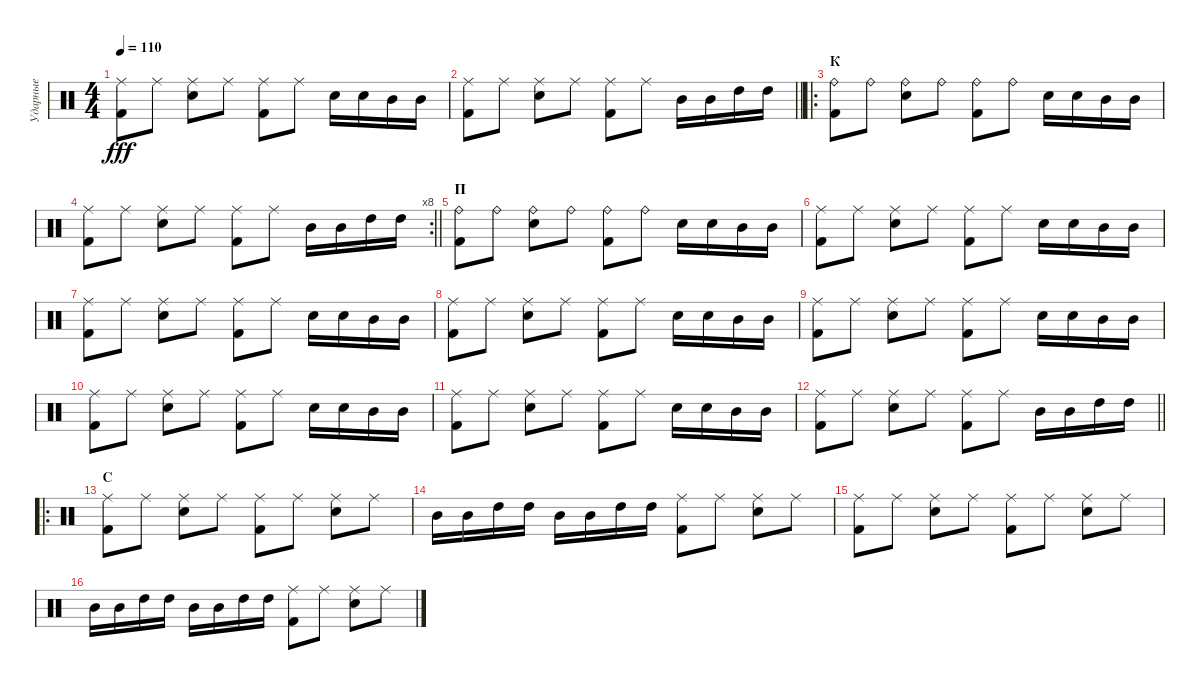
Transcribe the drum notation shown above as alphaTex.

\track ("Ударные" "Ударные") {instrument percussion}
\staff {score}
\articulation defaults
\ts (4 4)
\tempo 110
\clef neutral
\ks c
("Kick (hit) 2" "Ride (middle)").8{dy fff} "Ride (middle)".8 ("Electric Snare (hit)" "Ride (middle)").8 "Ride (middle)".8 ("Kick (hit) 2" "Ride (middle)").8 "Ride (middle)".8 "Electric Snare (hit)".16 "Electric Snare (hit)".16 "Mid Tom (hit)".16 "Mid Tom (hit)".16 |
\barLineRight lightlight
("Kick (hit) 2" "Ride (middle)").8 "Ride (middle)".8 ("Electric Snare (hit)" "Ride (middle)").8 "Ride (middle)".8 ("Kick (hit) 2" "Ride (middle)").8 "Ride (middle)".8 "Mid Tom (hit)".16 "Mid Tom (hit)".16 "High Tom (hit)".16 "High Tom (hit)".16 |
\ro
\section ("" "К")
("Kick (hit) 2" "Ride (bell)").8 "Ride (bell)".8 ("Electric Snare (hit)" "Ride (bell)").8 "Ride (bell)".8 ("Kick (hit) 2" "Ride (bell)").8 "Ride (bell)".8 "Electric Snare (hit)".16 "Electric Snare (hit)".16 "Mid Tom (hit)".16 "Mid Tom (hit)".16 |
\rc 8
\barLineRight lightlight
("Kick (hit) 2" "Ride (middle)").8 "Ride (middle)".8 ("Electric Snare (hit)" "Ride (middle)").8 "Ride (middle)".8 ("Kick (hit) 2" "Ride (middle)").8 "Ride (middle)".8 "Mid Tom (hit)".16 "Mid Tom (hit)".16 "High Tom (hit)".16 "High Tom (hit)".16 |
\section ("" "П")
("Kick (hit) 2" "Ride (bell)").8 "Ride (bell)".8 ("Electric Snare (hit)" "Ride (bell)").8 "Ride (bell)".8 ("Kick (hit) 2" "Ride (bell)").8 "Ride (bell)".8 "Electric Snare (hit)".16 "Electric Snare (hit)".16 "Mid Tom (hit)".16 "Mid Tom (hit)".16 |
("Kick (hit) 2" "Ride (middle)").8 "Ride (middle)".8 ("Electric Snare (hit)" "Ride (middle)").8 "Ride (middle)".8 ("Kick (hit) 2" "Ride (middle)").8 "Ride (middle)".8 "Electric Snare (hit)".16 "Electric Snare (hit)".16 "Mid Tom (hit)".16 "Mid Tom (hit)".16 |
("Kick (hit) 2" "Ride (middle)").8 "Ride (middle)".8 ("Electric Snare (hit)" "Ride (middle)").8 "Ride (middle)".8 ("Kick (hit) 2" "Ride (middle)").8 "Ride (middle)".8 "Electric Snare (hit)".16 "Electric Snare (hit)".16 "Mid Tom (hit)".16 "Mid Tom (hit)".16 |
("Kick (hit) 2" "Ride (middle)").8 "Ride (middle)".8 ("Electric Snare (hit)" "Ride (middle)").8 "Ride (middle)".8 ("Kick (hit) 2" "Ride (middle)").8 "Ride (middle)".8 "Electric Snare (hit)".16 "Electric Snare (hit)".16 "Mid Tom (hit)".16 "Mid Tom (hit)".16 |
("Kick (hit) 2" "Ride (middle)").8 "Ride (middle)".8 ("Electric Snare (hit)" "Ride (middle)").8 "Ride (middle)".8 ("Kick (hit) 2" "Ride (middle)").8 "Ride (middle)".8 "Electric Snare (hit)".16 "Electric Snare (hit)".16 "Mid Tom (hit)".16 "Mid Tom (hit)".16 |
("Kick (hit) 2" "Ride (middle)").8 "Ride (middle)".8 ("Electric Snare (hit)" "Ride (middle)").8 "Ride (middle)".8 ("Kick (hit) 2" "Ride (middle)").8 "Ride (middle)".8 "Electric Snare (hit)".16 "Electric Snare (hit)".16 "Mid Tom (hit)".16 "Mid Tom (hit)".16 |
("Kick (hit) 2" "Ride (middle)").8 "Ride (middle)".8 ("Electric Snare (hit)" "Ride (middle)").8 "Ride (middle)".8 ("Kick (hit) 2" "Ride (middle)").8 "Ride (middle)".8 "Electric Snare (hit)".16 "Electric Snare (hit)".16 "Mid Tom (hit)".16 "Mid Tom (hit)".16 |
\barLineRight lightlight
("Kick (hit) 2" "Ride (middle)").8 "Ride (middle)".8 ("Electric Snare (hit)" "Ride (middle)").8 "Ride (middle)".8 ("Kick (hit) 2" "Ride (middle)").8 "Ride (middle)".8 "Mid Tom (hit)".16 "Mid Tom (hit)".16 "High Tom (hit)".16 "High Tom (hit)".16 |
\ro
\section ("" "С")
("Kick (hit) 2" "Ride (middle)").8{volume 16} "Ride (middle)".8 ("Electric Snare (hit)" "Ride (middle)").8 "Ride (middle)".8 ("Kick (hit) 2" "Ride (middle)").8 "Ride (middle)".8 ("Electric Snare (hit)" "Ride (middle)").8 "Ride (middle)".8 |
"Mid Tom (hit)".16 "Mid Tom (hit)".16 "High Tom (hit)".16 "High Tom (hit)".16 "Mid Tom (hit)".16 "Mid Tom (hit)".16 "High Tom (hit)".16 "High Tom (hit)".16 ("Kick (hit) 2" "Ride (middle)").8 "Ride (middle)".8 ("Electric Snare (hit)" "Ride (middle)").8 "Ride (middle)".8 |
("Kick (hit) 2" "Ride (middle)").8 "Ride (middle)".8 ("Electric Snare (hit)" "Ride (middle)").8 "Ride (middle)".8 ("Kick (hit) 2" "Ride (middle)").8 "Ride (middle)".8 ("Electric Snare (hit)" "Ride (middle)").8 "Ride (middle)".8 |
"Mid Tom (hit)".16 "Mid Tom (hit)".16 "High Tom (hit)".16 "High Tom (hit)".16 "Mid Tom (hit)".16 "Mid Tom (hit)".16 "High Tom (hit)".16 "High Tom (hit)".16 ("Kick (hit) 2" "Ride (middle)").8 "Ride (middle)".8 ("Electric Snare (hit)" "Ride (middle)").8 "Ride (middle)".8
